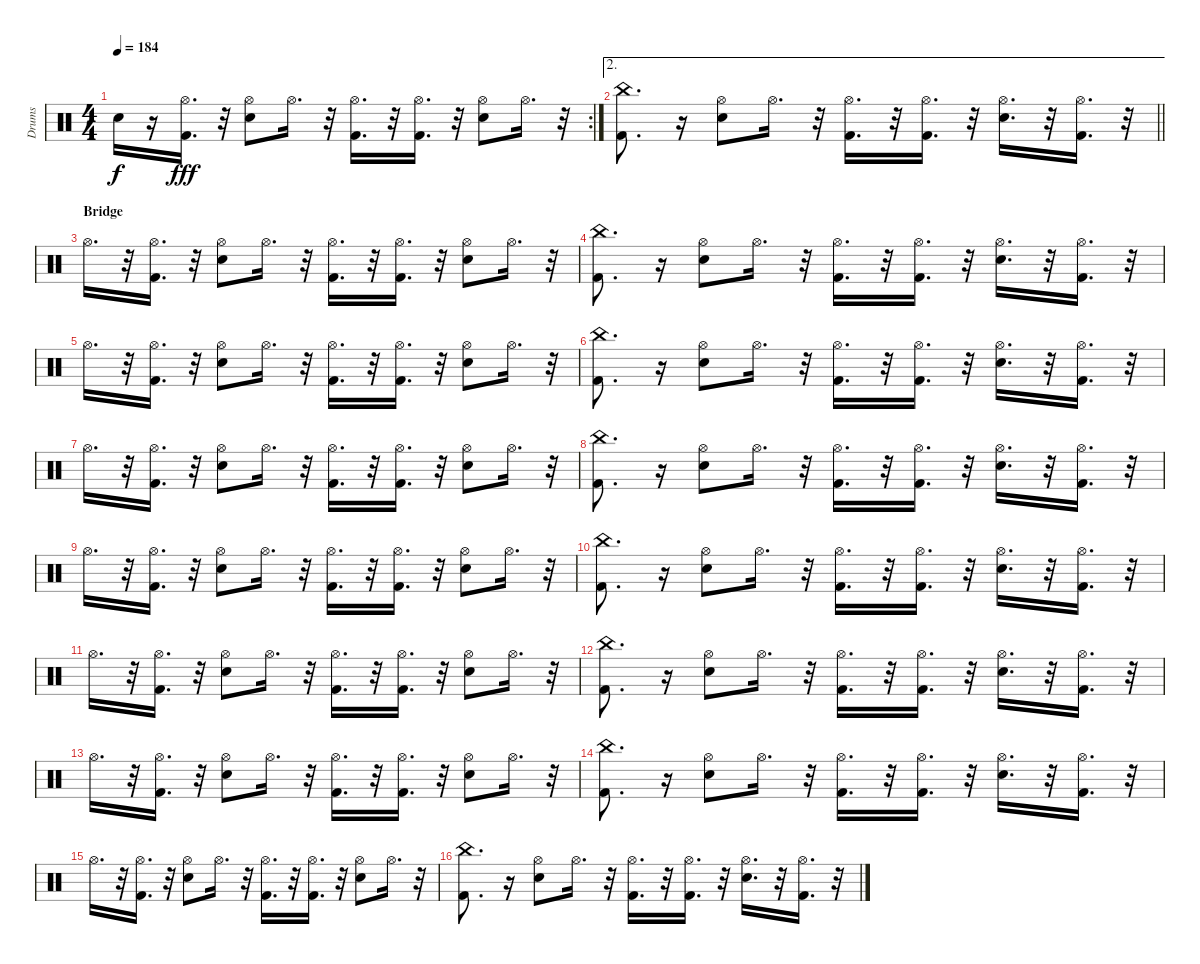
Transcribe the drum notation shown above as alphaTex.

\track ("Drums" "Drums") {instrument percussion}
\staff {score}
\articulation defaults
\rc 2
\ts (4 4)
\tempo 184
\clef neutral
\ks c "Snare (hit)"{t}.16{dy f}
r.16 ("Kick (hit) 2" "Hi-Hat (open)").16{d dy fff} r.32 ("Electric Snare (hit)" "Hi-Hat (open)").8 "Hi-Hat (open)".16{d} r.32 ("Kick (hit) 2" "Hi-Hat (open)").16{d} r.32 ("Kick (hit) 2" "Hi-Hat (open)").16{d} r.32 ("Electric Snare (hit)" "Hi-Hat (open)").8 "Hi-Hat (open)".16{d} r.32 |
\ae 2
\barLineRight lightlight
("Kick (hit) 2" "China (hit)").8{d} r.16 ("Electric Snare (hit)" "Hi-Hat (open)").8 "Hi-Hat (open)".16{d} r.32 ("Hi-Hat (open)" "Kick (hit) 2").16{d} r.32 ("Hi-Hat (open)" "Kick (hit) 2").16{d} r.32 ("Hi-Hat (open)" "Electric Snare (hit)").16{d} r.32 ("Kick (hit) 2" "Hi-Hat (open)").16{d} r.32 |
\section ("" "Bridge")
"Hi-Hat (open)".16{d} r.32 ("Kick (hit) 2" "Hi-Hat (open)").16{d} r.32 ("Electric Snare (hit)" "Hi-Hat (open)").8 "Hi-Hat (open)".16{d} r.32 ("Kick (hit) 2" "Hi-Hat (open)").16{d} r.32 ("Kick (hit) 2" "Hi-Hat (open)").16{d} r.32 ("Electric Snare (hit)" "Hi-Hat (open)").8 "Hi-Hat (open)".16{d} r.32 |
("Kick (hit) 2" "China (hit)").8{d} r.16 ("Electric Snare (hit)" "Hi-Hat (open)").8 "Hi-Hat (open)".16{d} r.32 ("Hi-Hat (open)" "Kick (hit) 2").16{d} r.32 ("Hi-Hat (open)" "Kick (hit) 2").16{d} r.32 ("Hi-Hat (open)" "Electric Snare (hit)").16{d} r.32 ("Kick (hit) 2" "Hi-Hat (open)").16{d} r.32 |
"Hi-Hat (open)".16{d} r.32 ("Kick (hit) 2" "Hi-Hat (open)").16{d} r.32 ("Electric Snare (hit)" "Hi-Hat (open)").8 "Hi-Hat (open)".16{d} r.32 ("Kick (hit) 2" "Hi-Hat (open)").16{d} r.32 ("Kick (hit) 2" "Hi-Hat (open)").16{d} r.32 ("Electric Snare (hit)" "Hi-Hat (open)").8 "Hi-Hat (open)".16{d} r.32 |
("Kick (hit) 2" "China (hit)").8{d} r.16 ("Electric Snare (hit)" "Hi-Hat (open)").8 "Hi-Hat (open)".16{d} r.32 ("Hi-Hat (open)" "Kick (hit) 2").16{d} r.32 ("Hi-Hat (open)" "Kick (hit) 2").16{d} r.32 ("Hi-Hat (open)" "Electric Snare (hit)").16{d} r.32 ("Kick (hit) 2" "Hi-Hat (open)").16{d} r.32 |
"Hi-Hat (open)".16{d} r.32 ("Kick (hit) 2" "Hi-Hat (open)").16{d} r.32 ("Electric Snare (hit)" "Hi-Hat (open)").8 "Hi-Hat (open)".16{d} r.32 ("Kick (hit) 2" "Hi-Hat (open)").16{d} r.32 ("Kick (hit) 2" "Hi-Hat (open)").16{d} r.32 ("Electric Snare (hit)" "Hi-Hat (open)").8 "Hi-Hat (open)".16{d} r.32 |
("Kick (hit) 2" "China (hit)").8{d} r.16 ("Electric Snare (hit)" "Hi-Hat (open)").8 "Hi-Hat (open)".16{d} r.32 ("Hi-Hat (open)" "Kick (hit) 2").16{d} r.32 ("Hi-Hat (open)" "Kick (hit) 2").16{d} r.32 ("Hi-Hat (open)" "Electric Snare (hit)").16{d} r.32 ("Kick (hit) 2" "Hi-Hat (open)").16{d} r.32 |
"Hi-Hat (open)".16{d} r.32 ("Kick (hit) 2" "Hi-Hat (open)").16{d} r.32 ("Electric Snare (hit)" "Hi-Hat (open)").8 "Hi-Hat (open)".16{d} r.32 ("Kick (hit) 2" "Hi-Hat (open)").16{d} r.32 ("Kick (hit) 2" "Hi-Hat (open)").16{d} r.32 ("Electric Snare (hit)" "Hi-Hat (open)").8 "Hi-Hat (open)".16{d} r.32 |
("Kick (hit) 2" "China (hit)").8{d} r.16 ("Electric Snare (hit)" "Hi-Hat (open)").8 "Hi-Hat (open)".16{d} r.32 ("Hi-Hat (open)" "Kick (hit) 2").16{d} r.32 ("Hi-Hat (open)" "Kick (hit) 2").16{d} r.32 ("Hi-Hat (open)" "Electric Snare (hit)").16{d} r.32 ("Kick (hit) 2" "Hi-Hat (open)").16{d} r.32 |
"Hi-Hat (open)".16{d} r.32 ("Kick (hit) 2" "Hi-Hat (open)").16{d} r.32 ("Electric Snare (hit)" "Hi-Hat (open)").8 "Hi-Hat (open)".16{d} r.32 ("Kick (hit) 2" "Hi-Hat (open)").16{d} r.32 ("Kick (hit) 2" "Hi-Hat (open)").16{d} r.32 ("Electric Snare (hit)" "Hi-Hat (open)").8 "Hi-Hat (open)".16{d} r.32 |
("Kick (hit) 2" "China (hit)").8{d} r.16 ("Electric Snare (hit)" "Hi-Hat (open)").8 "Hi-Hat (open)".16{d} r.32 ("Hi-Hat (open)" "Kick (hit) 2").16{d} r.32 ("Hi-Hat (open)" "Kick (hit) 2").16{d} r.32 ("Hi-Hat (open)" "Electric Snare (hit)").16{d} r.32 ("Kick (hit) 2" "Hi-Hat (open)").16{d} r.32 |
"Hi-Hat (open)".16{d} r.32 ("Kick (hit) 2" "Hi-Hat (open)").16{d} r.32 ("Electric Snare (hit)" "Hi-Hat (open)").8 "Hi-Hat (open)".16{d} r.32 ("Kick (hit) 2" "Hi-Hat (open)").16{d} r.32 ("Kick (hit) 2" "Hi-Hat (open)").16{d} r.32 ("Electric Snare (hit)" "Hi-Hat (open)").8 "Hi-Hat (open)".16{d} r.32 |
("Kick (hit) 2" "China (hit)").8{d} r.16 ("Electric Snare (hit)" "Hi-Hat (open)").8 "Hi-Hat (open)".16{d} r.32 ("Hi-Hat (open)" "Kick (hit) 2").16{d} r.32 ("Hi-Hat (open)" "Kick (hit) 2").16{d} r.32 ("Hi-Hat (open)" "Electric Snare (hit)").16{d} r.32 ("Kick (hit) 2" "Hi-Hat (open)").16{d} r.32 |
"Hi-Hat (open)".16{d} r.32 ("Kick (hit) 2" "Hi-Hat (open)").16{d} r.32 ("Electric Snare (hit)" "Hi-Hat (open)").8 "Hi-Hat (open)".16{d} r.32 ("Kick (hit) 2" "Hi-Hat (open)").16{d} r.32 ("Kick (hit) 2" "Hi-Hat (open)").16{d} r.32 ("Electric Snare (hit)" "Hi-Hat (open)").8 "Hi-Hat (open)".16{d} r.32 |
("Kick (hit) 2" "China (hit)").8{d} r.16 ("Electric Snare (hit)" "Hi-Hat (open)").8 "Hi-Hat (open)".16{d} r.32 ("Hi-Hat (open)" "Kick (hit) 2").16{d} r.32 ("Hi-Hat (open)" "Kick (hit) 2").16{d} r.32 ("Hi-Hat (open)" "Electric Snare (hit)").16{d} r.32 ("Kick (hit) 2" "Hi-Hat (open)").16{d} r.32
